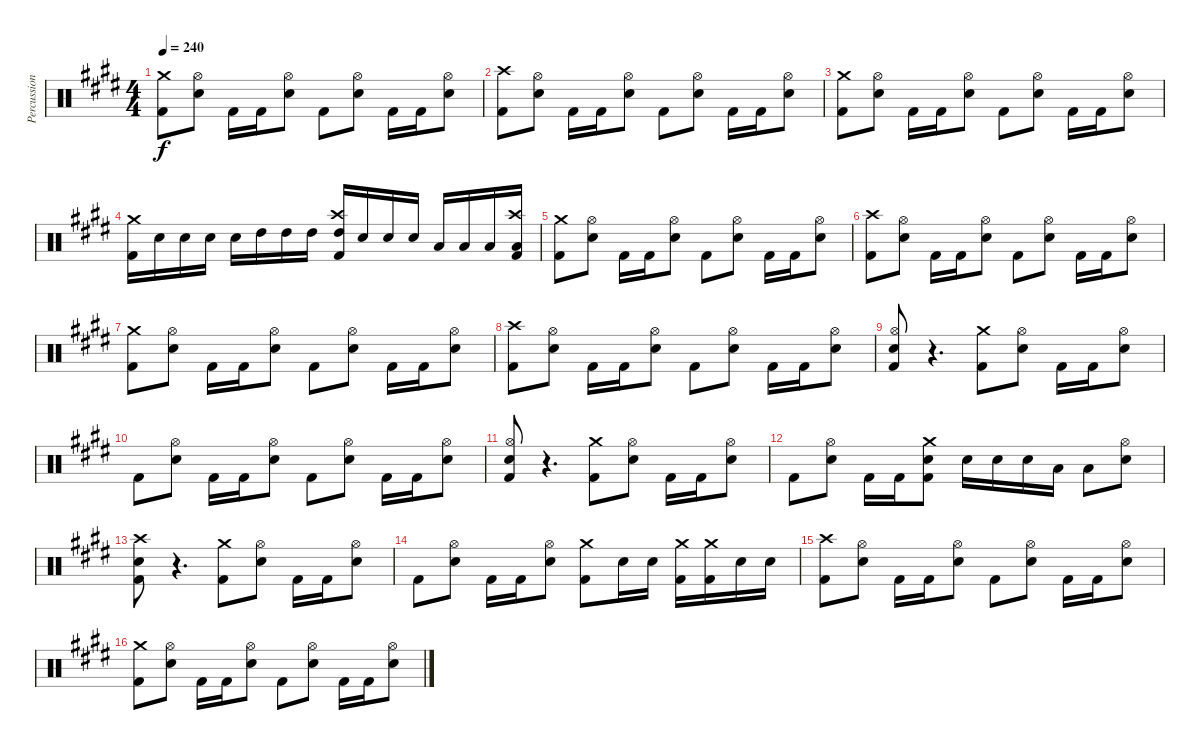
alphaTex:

\track ("Percussion" "Percussion") {instrument percussion}
\staff {score}
\articulation defaults
\ts (4 4)
\tempo 240
\clef neutral
\ks e
("Crash medium (hit)" "Kick (hit) 2").8{dy f} ("Hi-Hat (open)" "Snare (hit) 2").8 "Kick (hit) 2".16 "Kick (hit) 2".16 ("Hi-Hat (open)" "Snare (hit) 2").8 "Kick (hit) 2".8 ("Hi-Hat (open)" "Snare (hit) 2").8 "Kick (hit) 2".16 "Kick (hit) 2".16 ("Hi-Hat (open)" "Snare (hit) 2").8 |
("Crash high (hit)" "Kick (hit) 2").8 ("Hi-Hat (open)" "Snare (hit) 2").8 "Kick (hit) 2".16 "Kick (hit) 2".16 ("Hi-Hat (open)" "Snare (hit) 2").8 "Kick (hit) 2".8 ("Hi-Hat (open)" "Snare (hit) 2").8 "Kick (hit) 2".16 "Kick (hit) 2".16 ("Hi-Hat (open)" "Snare (hit) 2").8 |
("Crash medium (hit)" "Kick (hit) 2").8 ("Hi-Hat (open)" "Snare (hit) 2").8 "Kick (hit) 2".16 "Kick (hit) 2".16 ("Hi-Hat (open)" "Snare (hit) 2").8 "Kick (hit) 2".8 ("Hi-Hat (open)" "Snare (hit) 2").8 "Kick (hit) 2".16 "Kick (hit) 2".16 ("Hi-Hat (open)" "Snare (hit) 2").8 |
("Crash medium (hit)" "Kick (hit) 2").16 "Snare (hit) 2".16 "Snare (hit) 2".16 "Snare (hit) 2".16 "Snare (hit) 2".16 "High Tom (hit)".16 "High Tom (hit)".16 "High Tom (hit)".16 ("Crash high (hit)" "High Tom (hit)" "Kick (hit) 2").16 "Snare (hit) 2".16 "Snare (hit) 2".16 "Snare (hit) 2".16 "Low Tom (hit)".16 "Low Tom (hit)".16 "Low Tom (hit)".16 ("Crash high (hit)" "Low Tom (hit)" "Kick (hit) 2").16 |
("Crash medium (hit)" "Kick (hit) 2").8 ("Hi-Hat (open)" "Snare (hit) 2").8 "Kick (hit) 2".16 "Kick (hit) 2".16 ("Hi-Hat (open)" "Snare (hit) 2").8 "Kick (hit) 2".8 ("Hi-Hat (open)" "Snare (hit) 2").8 "Kick (hit) 2".16 "Kick (hit) 2".16 ("Hi-Hat (open)" "Snare (hit) 2").8 |
("Crash high (hit)" "Kick (hit) 2").8 ("Hi-Hat (open)" "Snare (hit) 2").8 "Kick (hit) 2".16 "Kick (hit) 2".16 ("Hi-Hat (open)" "Snare (hit) 2").8 "Kick (hit) 2".8 ("Hi-Hat (open)" "Snare (hit) 2").8 "Kick (hit) 2".16 "Kick (hit) 2".16 ("Hi-Hat (open)" "Snare (hit) 2").8 |
("Crash medium (hit)" "Kick (hit) 2").8 ("Hi-Hat (open)" "Snare (hit) 2").8 "Kick (hit) 2".16 "Kick (hit) 2".16 ("Hi-Hat (open)" "Snare (hit) 2").8 "Kick (hit) 2".8 ("Hi-Hat (open)" "Snare (hit) 2").8 "Kick (hit) 2".16 "Kick (hit) 2".16 ("Hi-Hat (open)" "Snare (hit) 2").8 |
("Crash high (hit)" "Kick (hit) 2").8 ("Hi-Hat (open)" "Snare (hit) 2").8 "Kick (hit) 2".16 "Kick (hit) 2".16 ("Hi-Hat (open)" "Snare (hit) 2").8 "Kick (hit) 2".8 ("Hi-Hat (open)" "Snare (hit) 2").8 "Kick (hit) 2".16 "Kick (hit) 2".16 ("Hi-Hat (open)" "Snare (hit) 2").8 |
("Hi-Hat (open)" "Snare (hit) 2" "Kick (hit) 2").8 r.4{d} ("Crash medium (hit)" "Kick (hit) 2").8 ("Hi-Hat (open)" "Snare (hit) 2").8 "Kick (hit) 2".16 "Kick (hit) 2".16 ("Hi-Hat (open)" "Snare (hit) 2").8 |
"Kick (hit) 2".8 ("Hi-Hat (open)" "Snare (hit) 2").8 "Kick (hit) 2".16 "Kick (hit) 2".16 ("Hi-Hat (open)" "Snare (hit) 2").8 "Kick (hit) 2".8 ("Hi-Hat (open)" "Snare (hit) 2").8 "Kick (hit) 2".16 "Kick (hit) 2".16 ("Hi-Hat (open)" "Snare (hit) 2").8 |
("Hi-Hat (open)" "Snare (hit) 2" "Kick (hit) 2").8 r.4{d} ("Crash medium (hit)" "Kick (hit) 2").8 ("Hi-Hat (open)" "Snare (hit) 2").8 "Kick (hit) 2".16 "Kick (hit) 2".16 ("Hi-Hat (open)" "Snare (hit) 2").8 |
"Kick (hit) 2".8 ("Hi-Hat (open)" "Snare (hit) 2").8 "Kick (hit) 2".16 "Kick (hit) 2".16 ("Crash medium (hit)" "Snare (hit) 2" "Kick (hit) 2").8 "Snare (hit) 2".16 "Snare (hit) 2".16 "Snare (hit) 2".16 "Low Tom (hit)".16 "Low Tom (hit)".8 ("Hi-Hat (open)" "Snare (hit) 2").8 |
("Crash high (hit)" "Snare (hit) 2" "Kick (hit) 2").8 r.4{d} ("Crash medium (hit)" "Kick (hit) 2").8 ("Hi-Hat (open)" "Snare (hit) 2").8 "Kick (hit) 2".16 "Kick (hit) 2".16 ("Hi-Hat (open)" "Snare (hit) 2").8 |
"Kick (hit) 2".8 ("Hi-Hat (open)" "Snare (hit) 2").8 "Kick (hit) 2".16 "Kick (hit) 2".16 ("Hi-Hat (open)" "Snare (hit) 2").8 ("Crash medium (hit)" "Kick (hit) 2").8 "Snare (hit) 2".16 "Snare (hit) 2".16 ("Crash medium (hit)" "Kick (hit) 2").16 ("Crash medium (hit)" "Kick (hit) 2").16 "Snare (hit) 2".16 "Snare (hit) 2".16 |
("Crash high (hit)" "Kick (hit) 2").8 ("Hi-Hat (open)" "Snare (hit) 2").8 "Kick (hit) 2".16 "Kick (hit) 2".16 ("Hi-Hat (open)" "Snare (hit) 2").8 "Kick (hit) 2".8 ("Hi-Hat (open)" "Snare (hit) 2").8 "Kick (hit) 2".16 "Kick (hit) 2".16 ("Hi-Hat (open)" "Snare (hit) 2").8 |
("Crash medium (hit)" "Kick (hit) 2").8 ("Hi-Hat (open)" "Snare (hit) 2").8 "Kick (hit) 2".16 "Kick (hit) 2".16 ("Hi-Hat (open)" "Snare (hit) 2").8 "Kick (hit) 2".8 ("Hi-Hat (open)" "Snare (hit) 2").8 "Kick (hit) 2".16 "Kick (hit) 2".16 ("Hi-Hat (open)" "Snare (hit) 2").8
